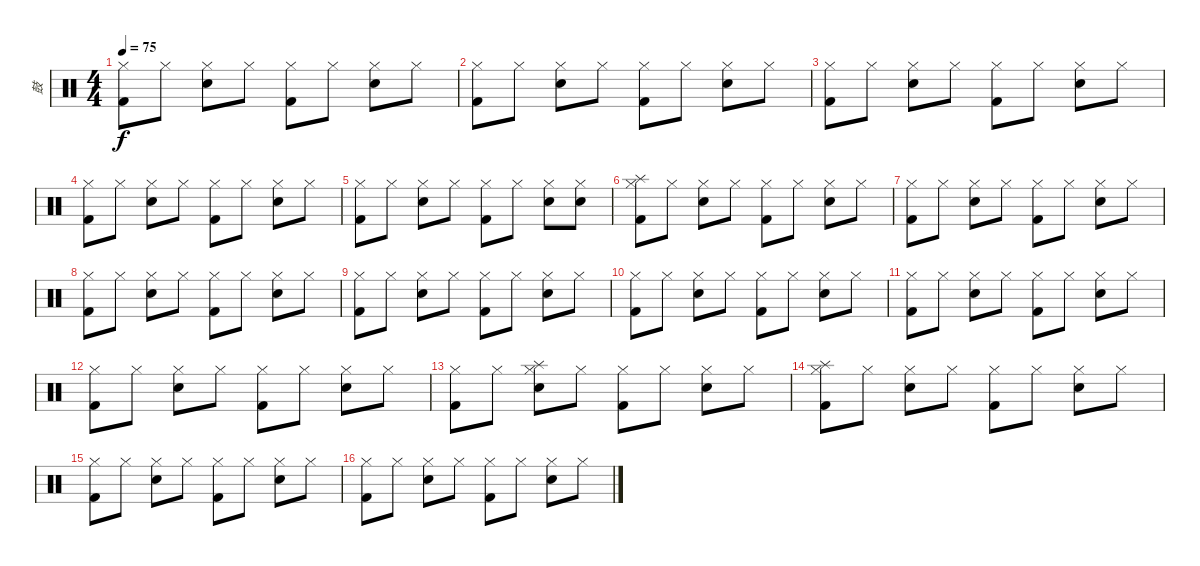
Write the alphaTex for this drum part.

\track ("鼓" "鼓") {instrument percussion}
\staff {score}
\articulation defaults
\ts (4 4)
\tempo 75
\clef neutral
\ks c
("Hi-Hat (closed)" "Kick (hit) 2").8{dy f} "Hi-Hat (closed)".8 ("Hi-Hat (closed)" "Electric Snare (hit)").8 "Hi-Hat (closed)".8 ("Hi-Hat (closed)" "Kick (hit) 2").8 "Hi-Hat (closed)".8 ("Hi-Hat (closed)" "Electric Snare (hit)").8 "Hi-Hat (closed)".8 |
("Hi-Hat (closed)" "Kick (hit) 2").8 "Hi-Hat (closed)".8 ("Hi-Hat (closed)" "Electric Snare (hit)").8 "Hi-Hat (closed)".8 ("Hi-Hat (closed)" "Kick (hit) 2").8 "Hi-Hat (closed)".8 ("Hi-Hat (closed)" "Electric Snare (hit)").8 "Hi-Hat (closed)".8 |
("Hi-Hat (closed)" "Kick (hit) 2").8 "Hi-Hat (closed)".8 ("Hi-Hat (closed)" "Electric Snare (hit)").8 "Hi-Hat (closed)".8 ("Hi-Hat (closed)" "Kick (hit) 2").8 "Hi-Hat (closed)".8 ("Hi-Hat (closed)" "Electric Snare (hit)").8 "Hi-Hat (closed)".8 |
("Hi-Hat (closed)" "Kick (hit) 2").8 "Hi-Hat (closed)".8 ("Hi-Hat (closed)" "Electric Snare (hit)").8 "Hi-Hat (closed)".8 ("Hi-Hat (closed)" "Kick (hit) 2").8 "Hi-Hat (closed)".8 ("Hi-Hat (closed)" "Electric Snare (hit)").8 "Hi-Hat (closed)".8 |
("Hi-Hat (closed)" "Kick (hit) 2").8 "Hi-Hat (closed)".8 ("Hi-Hat (closed)" "Electric Snare (hit)").8 "Hi-Hat (closed)".8 ("Hi-Hat (closed)" "Kick (hit) 2").8 "Hi-Hat (closed)".8 ("Hi-Hat (closed)" "Electric Snare (hit)").8 ("Hi-Hat (closed)" "Electric Snare (hit)").8 |
("Hi-Hat (closed)" "Splash (hit)" "Kick (hit) 2").8 "Hi-Hat (closed)".8 ("Hi-Hat (closed)" "Electric Snare (hit)").8 "Hi-Hat (closed)".8 ("Hi-Hat (closed)" "Kick (hit) 2").8 "Hi-Hat (closed)".8 ("Hi-Hat (closed)" "Electric Snare (hit)").8 "Hi-Hat (closed)".8 |
("Hi-Hat (closed)" "Kick (hit) 2").8 "Hi-Hat (closed)".8 ("Hi-Hat (closed)" "Electric Snare (hit)").8 "Hi-Hat (closed)".8 ("Hi-Hat (closed)" "Kick (hit) 2").8 "Hi-Hat (closed)".8 ("Hi-Hat (closed)" "Electric Snare (hit)").8 "Hi-Hat (closed)".8 |
("Hi-Hat (closed)" "Kick (hit) 2").8 "Hi-Hat (closed)".8 ("Hi-Hat (closed)" "Electric Snare (hit)").8 "Hi-Hat (closed)".8 ("Hi-Hat (closed)" "Kick (hit) 2").8 "Hi-Hat (closed)".8 ("Hi-Hat (closed)" "Electric Snare (hit)").8 "Hi-Hat (closed)".8 |
("Hi-Hat (closed)" "Kick (hit) 2").8 "Hi-Hat (closed)".8 ("Hi-Hat (closed)" "Electric Snare (hit)").8 "Hi-Hat (closed)".8 ("Hi-Hat (closed)" "Kick (hit) 2").8 "Hi-Hat (closed)".8 ("Hi-Hat (closed)" "Electric Snare (hit)").8 "Hi-Hat (closed)".8 |
("Hi-Hat (closed)" "Kick (hit) 2").8 "Hi-Hat (closed)".8 ("Hi-Hat (closed)" "Electric Snare (hit)").8 "Hi-Hat (closed)".8 ("Hi-Hat (closed)" "Kick (hit) 2").8 "Hi-Hat (closed)".8 ("Hi-Hat (closed)" "Electric Snare (hit)").8 "Hi-Hat (closed)".8 |
("Hi-Hat (closed)" "Kick (hit) 2").8 "Hi-Hat (closed)".8 ("Hi-Hat (closed)" "Electric Snare (hit)").8 "Hi-Hat (closed)".8 ("Hi-Hat (closed)" "Kick (hit) 2").8 "Hi-Hat (closed)".8 ("Hi-Hat (closed)" "Electric Snare (hit)").8 "Hi-Hat (closed)".8 |
("Hi-Hat (closed)" "Kick (hit) 2").8 "Hi-Hat (closed)".8 ("Hi-Hat (closed)" "Electric Snare (hit)").8 "Hi-Hat (closed)".8 ("Hi-Hat (closed)" "Kick (hit) 2").8 "Hi-Hat (closed)".8 ("Hi-Hat (closed)" "Electric Snare (hit)").8 "Hi-Hat (closed)".8 |
("Hi-Hat (closed)" "Kick (hit) 2").8 "Hi-Hat (closed)".8 ("Hi-Hat (closed)" "Splash (hit)" "Electric Snare (hit)").8 "Hi-Hat (closed)".8 ("Hi-Hat (closed)" "Kick (hit) 2").8 "Hi-Hat (closed)".8 ("Hi-Hat (closed)" "Electric Snare (hit)").8 "Hi-Hat (closed)".8 |
("Hi-Hat (closed)" "Splash (hit)" "Kick (hit) 2").8 "Hi-Hat (closed)".8 ("Hi-Hat (closed)" "Electric Snare (hit)").8 "Hi-Hat (closed)".8 ("Hi-Hat (closed)" "Kick (hit) 2").8 "Hi-Hat (closed)".8 ("Hi-Hat (closed)" "Electric Snare (hit)").8 "Hi-Hat (closed)".8 |
("Hi-Hat (closed)" "Kick (hit) 2").8 "Hi-Hat (closed)".8 ("Hi-Hat (closed)" "Electric Snare (hit)").8 "Hi-Hat (closed)".8 ("Hi-Hat (closed)" "Kick (hit) 2").8 "Hi-Hat (closed)".8 ("Hi-Hat (closed)" "Electric Snare (hit)").8 "Hi-Hat (closed)".8 |
("Hi-Hat (closed)" "Kick (hit) 2").8 "Hi-Hat (closed)".8 ("Hi-Hat (closed)" "Electric Snare (hit)").8 "Hi-Hat (closed)".8 ("Hi-Hat (closed)" "Kick (hit) 2").8 "Hi-Hat (closed)".8 ("Hi-Hat (closed)" "Electric Snare (hit)").8 "Hi-Hat (closed)".8
